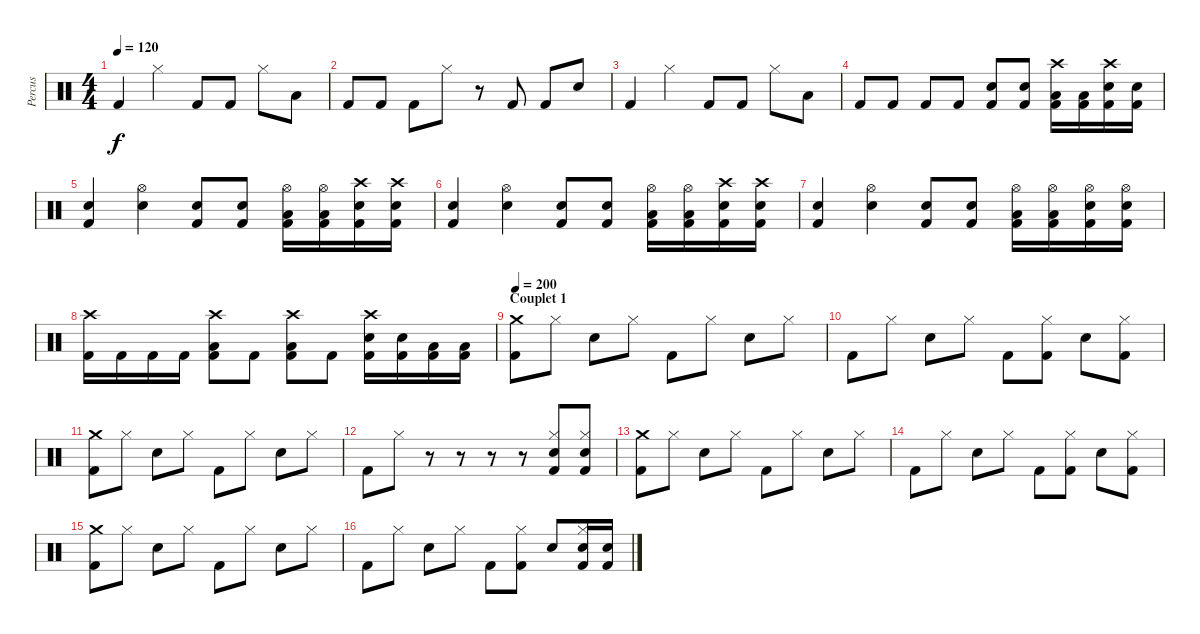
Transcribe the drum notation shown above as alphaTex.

\track ("Percus" "Percus") {instrument percussion}
\staff {score}
\articulation defaults
\ts (4 4)
\tempo 120
\clef neutral
\ks c "Kick (hit) 2".4{dy f} "Hi-Hat (closed)".4 "Kick (hit) 2".8 "Kick (hit) 2".8 "Hi-Hat (closed)".8 "Low Tom (hit)".8
|
"Kick (hit) 2".8 "Kick (hit) 2".8 "Kick (hit) 2".8 "Hi-Hat (closed)".8 r.8 "Kick (hit) 2".8 "Kick (hit) 2".8 "Snare (hit) 2".8 |
"Kick (hit) 2".4 "Hi-Hat (closed)".4 "Kick (hit) 2".8 "Kick (hit) 2".8 "Hi-Hat (closed)".8 "Low Tom (hit)".8 |
"Kick (hit) 2".8 "Kick (hit) 2".8 "Kick (hit) 2".8 "Kick (hit) 2".8 ("Snare (hit) 2" "Kick (hit) 2").8 ("Snare (hit) 2" "Kick (hit) 2").8 ("Crash high (hit)" "Low Tom (hit)" "Kick (hit) 2").16 ("Low Tom (hit)" "Kick (hit) 2").16 ("Crash high (hit)" "Snare (hit) 2" "Kick (hit) 2").16 ("Snare (hit) 2" "Kick (hit) 2").16 |
("Snare (hit) 2" "Kick (hit) 2").4 ("Hi-Hat (open)" "Snare (hit) 2").4 ("Snare (hit) 2" "Kick (hit) 2").8 ("Snare (hit) 2" "Kick (hit) 2").8 ("Hi-Hat (open)" "Low Tom (hit)" "Kick (hit) 2").16 ("Hi-Hat (open)" "Low Tom (hit)" "Kick (hit) 2").16 ("Crash high (hit)" "Snare (hit) 2" "Kick (hit) 2").16 ("Crash high (hit)" "Snare (hit) 2" "Kick (hit) 2").16 |
("Snare (hit) 2" "Kick (hit) 2").4 ("Hi-Hat (open)" "Snare (hit) 2").4 ("Snare (hit) 2" "Kick (hit) 2").8 ("Snare (hit) 2" "Kick (hit) 2").8 ("Hi-Hat (open)" "Low Tom (hit)" "Kick (hit) 2").16 ("Hi-Hat (open)" "Low Tom (hit)" "Kick (hit) 2").16 ("Crash high (hit)" "Snare (hit) 2" "Kick (hit) 2").16 ("Crash high (hit)" "Snare (hit) 2" "Kick (hit) 2").16 |
("Snare (hit) 2" "Kick (hit) 2").4 ("Hi-Hat (open)" "Snare (hit) 2").4 ("Snare (hit) 2" "Kick (hit) 2").8 ("Snare (hit) 2" "Kick (hit) 2").8 ("Hi-Hat (open)" "Low Tom (hit)" "Kick (hit) 2").16 ("Hi-Hat (open)" "Low Tom (hit)" "Kick (hit) 2").16 ("Hi-Hat (open)" "Snare (hit) 2" "Kick (hit) 2").16 ("Hi-Hat (open)" "Snare (hit) 2" "Kick (hit) 2").16 |
("Crash high (hit)" "Kick (hit) 2").16 "Kick (hit) 2".16 "Kick (hit) 2".16 "Kick (hit) 2".16 ("Crash high (hit)" "Low Tom (hit)" "Kick (hit) 2").8 "Kick (hit) 2".8 ("Crash high (hit)" "Low Tom (hit)" "Kick (hit) 2").8 "Kick (hit) 2".8 ("Crash high (hit)" "Snare (hit) 2" "Kick (hit) 2").16 ("Snare (hit) 2" "Kick (hit) 2").16 ("Low Tom (hit)" "Kick (hit) 2").16 ("Low Tom (hit)" "Kick (hit) 2").16 |
\section ("" "Couplet 1")
\tempo 200
("Crash medium (hit)" "Kick (hit) 2").8 "Hi-Hat (closed)".8 "Snare (hit) 2".8 "Hi-Hat (closed)".8 "Kick (hit) 2".8 "Hi-Hat (closed)".8 "Snare (hit) 2".8 "Hi-Hat (closed)".8 |
"Kick (hit) 2".8 "Hi-Hat (closed)".8 "Snare (hit) 2".8 "Hi-Hat (closed)".8 "Kick (hit) 2".8 ("Hi-Hat (closed)" "Kick (hit) 2").8 "Snare (hit) 2".8 ("Hi-Hat (closed)" "Kick (hit) 2").8 |
("Crash medium (hit)" "Kick (hit) 2").8 "Hi-Hat (closed)".8 "Snare (hit) 2".8 "Hi-Hat (closed)".8 "Kick (hit) 2".8 "Hi-Hat (closed)".8 "Snare (hit) 2".8 "Hi-Hat (closed)".8 |
"Kick (hit) 2".8 "Hi-Hat (closed)".8 r.8 r.8 r.8 r.8 ("Hi-Hat (closed)" "Snare (hit) 2" "Kick (hit) 2").8 ("Hi-Hat (closed)" "Snare (hit) 2" "Kick (hit) 2").8 |
("Crash medium (hit)" "Kick (hit) 2").8 "Hi-Hat (closed)".8 "Snare (hit) 2".8 "Hi-Hat (closed)".8 "Kick (hit) 2".8 "Hi-Hat (closed)".8 "Snare (hit) 2".8 "Hi-Hat (closed)".8 |
"Kick (hit) 2".8 "Hi-Hat (closed)".8 "Snare (hit) 2".8 "Hi-Hat (closed)".8 "Kick (hit) 2".8 ("Hi-Hat (closed)" "Kick (hit) 2").8 "Snare (hit) 2".8 ("Hi-Hat (closed)" "Kick (hit) 2").8 |
("Crash medium (hit)" "Kick (hit) 2").8 "Hi-Hat (closed)".8 "Snare (hit) 2".8 "Hi-Hat (closed)".8 "Kick (hit) 2".8 "Hi-Hat (closed)".8 "Snare (hit) 2".8 "Hi-Hat (closed)".8 |
"Kick (hit) 2".8 "Hi-Hat (closed)".8 "Snare (hit) 2".8 "Hi-Hat (closed)".8 "Kick (hit) 2".8 ("Hi-Hat (closed)" "Kick (hit) 2").8 "Snare (hit) 2".8 ("Hi-Hat (closed)" "Snare (hit) 2" "Kick (hit) 2").16 ("Snare (hit) 2" "Kick (hit) 2").16
